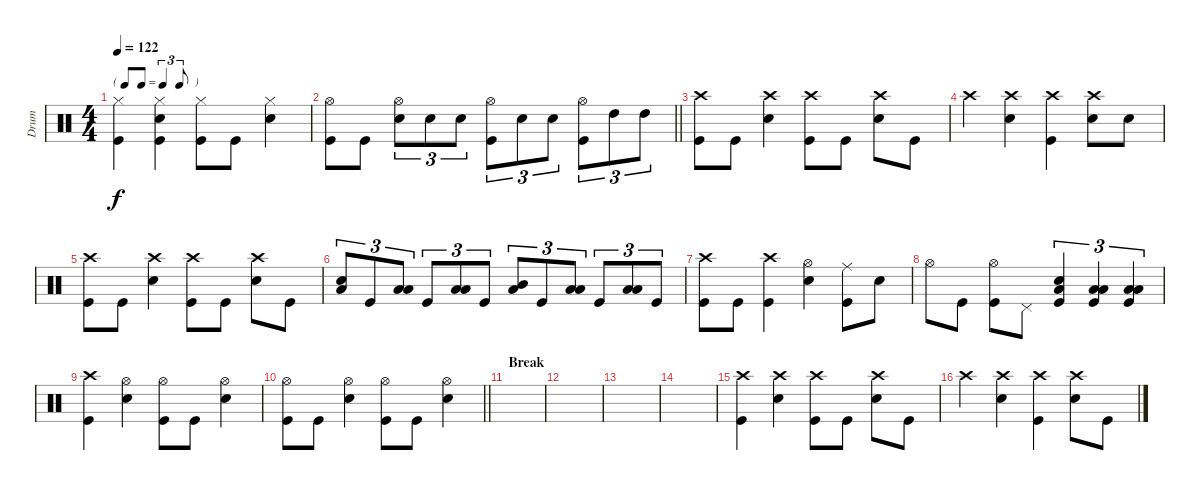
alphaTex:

\track ("Drum" "Drum") {instrument percussion}
\staff {score}
\articulation defaults
\ts (4 4)
\tf triplet8th
\tempo 122
\clef neutral
\ks c
("Hi-Hat (closed)" "Kick (hit)").4{dy f} ("Hi-Hat (closed)" "Electric Snare (hit)" "Kick (hit)").4 ("Hi-Hat (closed)" "Kick (hit)").8 "Kick (hit)".8 ("Hi-Hat (closed)" "Electric Snare (hit)").4 |
\barLineRight lightlight
("Hi-Hat (open)" "Kick (hit)").8 "Kick (hit)".8 ("Hi-Hat (open)" "Electric Snare (hit)").8{tu (3 2)} "Electric Snare (hit)".8{tu (3 2)} "Electric Snare (hit)".8{tu (3 2)} ("Hi-Hat (open)" "Kick (hit)").8{tu (3 2)} "Electric Snare (hit)".8{tu (3 2)} "Electric Snare (hit)".8{tu (3 2)} ("Hi-Hat (open)" "Kick (hit)").8{tu (3 2)} "High Tom (hit)".8{tu (3 2)} "High Tom (hit)".8{tu (3 2)} |
("Crash high (hit)" "Kick (hit)").8 "Kick (hit)".8 ("Crash high (hit)" "Electric Snare (hit)").4 ("Crash high (hit)" "Kick (hit)").8 "Kick (hit)".8 ("Crash high (hit)" "Electric Snare (hit)").8 "Kick (hit)".8 |
"Crash high (hit)".4 ("Crash high (hit)" "Electric Snare (hit)").4 ("Crash high (hit)" "Kick (hit)").4 ("Crash high (hit)" "Electric Snare (hit)").8 "Electric Snare (hit)".8 |
("Crash high (hit)" "Kick (hit)").8 "Kick (hit)".8 ("Crash high (hit)" "Electric Snare (hit)").4 ("Crash high (hit)" "Kick (hit)").8 "Kick (hit)".8 ("Crash high (hit)" "Electric Snare (hit)").8 "Kick (hit)".8 |
("Electric Snare (hit)" "Low Tom (hit)").8{tu (3 2)} "Kick (hit)".8{tu (3 2)} ("Low Tom (hit)" "Low Floor Tom (hit)").8{tu (3 2)} "Kick (hit)".8{tu (3 2)} ("Low Tom (hit)" "Low Floor Tom (hit)").8{tu (3 2)} "Kick (hit)".8{tu (3 2)} ("Mid Tom (hit)" "Low Tom (hit)").8{tu (3 2)} "Kick (hit)".8{tu (3 2)} ("Low Tom (hit)" "Low Floor Tom (hit)").8{tu (3 2)} "Kick (hit)".8{tu (3 2)} ("Low Tom (hit)" "Low Floor Tom (hit)").8{tu (3 2)} "Kick (hit)".8{tu (3 2)} |
("Crash high (hit)" "Kick (hit)").8 "Kick (hit)".8 ("Crash high (hit)" "Kick (hit)").4 ("Hi-Hat (open)" "Electric Snare (hit)").4 ("Ride (middle)" "Kick (hit)").8 "Electric Snare (hit)".8 |
"Hi-Hat (open)".8 "Kick (hit)".8 ("Hi-Hat (open)" "Kick (hit)").8 "Pedal Hi-Hat (hit)".8 ("Electric Snare (hit)" "Low Floor Tom (hit)" "Kick (hit)").4{tu (3 2)} ("Low Tom (hit)" "Low Floor Tom (hit)" "Kick (hit)").4{tu (3 2)} ("Low Tom (hit)" "Low Floor Tom (hit)" "Kick (hit)").4{tu (3 2)} |
("Crash high (hit)" "Kick (hit)").4 ("Hi-Hat (open)" "Electric Snare (hit)").4 ("Hi-Hat (open)" "Kick (hit)").8 "Kick (hit)".8 ("Hi-Hat (open)" "Electric Snare (hit)").4 |
\barLineRight lightlight
("Hi-Hat (open)" "Kick (hit)").8 "Kick (hit)".8 ("Hi-Hat (open)" "Electric Snare (hit)").4 ("Hi-Hat (open)" "Kick (hit)").8 "Kick (hit)".8 ("Hi-Hat (open)" "Electric Snare (hit)").4 |
\section ("" "Break")
|
|
|
|
("Crash high (hit)" "Kick (hit)").4 ("Crash high (hit)" "Electric Snare (hit)").4 ("Crash high (hit)" "Kick (hit)").8 "Kick (hit)".8 ("Crash high (hit)" "Electric Snare (hit)").8 "Kick (hit)".8 |
"Crash high (hit)".4 ("Crash high (hit)" "Electric Snare (hit)").4 ("Crash high (hit)" "Kick (hit)").4 ("Crash high (hit)" "Electric Snare (hit)").8 "Kick (hit)".8
